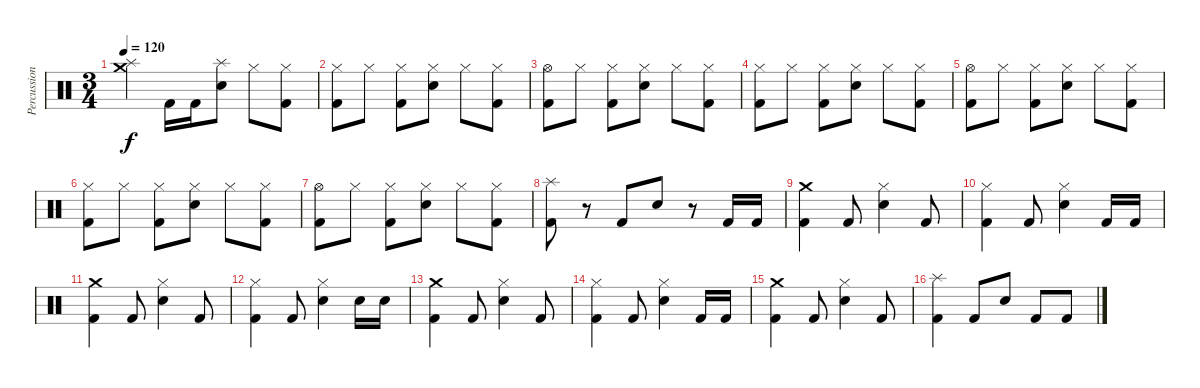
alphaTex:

\track ("Percussion" "Percussion") {instrument percussion}
\staff {score}
\articulation defaults
\ts (3 4)
\tempo 120
\clef neutral
\ks c
("Crash medium (hit)" "Splash (hit)").4{dy f} "Kick (hit) 2".16 "Kick (hit) 2".16 ("Splash (hit)" "Electric Snare (hit)").8 "Hi-Hat (closed)".8 ("Hi-Hat (closed)" "Kick (hit) 2").8 |
("Hi-Hat (closed)" "Kick (hit) 2").8 "Hi-Hat (closed)".8 ("Hi-Hat (closed)" "Kick (hit) 2").8 ("Hi-Hat (closed)" "Electric Snare (hit)").8 "Hi-Hat (closed)".8 ("Hi-Hat (closed)" "Kick (hit) 2").8 |
("Hi-Hat (open)" "Kick (hit) 2").8 "Hi-Hat (closed)".8 ("Hi-Hat (closed)" "Kick (hit) 2").8 ("Hi-Hat (closed)" "Electric Snare (hit)").8 "Hi-Hat (closed)".8 ("Hi-Hat (closed)" "Kick (hit) 2").8 |
("Hi-Hat (closed)" "Kick (hit) 2").8 "Hi-Hat (closed)".8 ("Hi-Hat (closed)" "Kick (hit) 2").8 ("Hi-Hat (closed)" "Electric Snare (hit)").8 "Hi-Hat (closed)".8 ("Hi-Hat (closed)" "Kick (hit) 2").8 |
("Hi-Hat (open)" "Kick (hit) 2").8 "Hi-Hat (closed)".8 ("Hi-Hat (closed)" "Kick (hit) 2").8 ("Hi-Hat (closed)" "Electric Snare (hit)").8 "Hi-Hat (closed)".8 ("Hi-Hat (closed)" "Kick (hit) 2").8 |
("Hi-Hat (closed)" "Kick (hit) 2").8 "Hi-Hat (closed)".8 ("Hi-Hat (closed)" "Kick (hit) 2").8 ("Hi-Hat (closed)" "Electric Snare (hit)").8 "Hi-Hat (closed)".8 ("Hi-Hat (closed)" "Kick (hit) 2").8 |
("Hi-Hat (open)" "Kick (hit) 2").8 "Hi-Hat (closed)".8 ("Hi-Hat (closed)" "Kick (hit) 2").8 ("Hi-Hat (closed)" "Electric Snare (hit)").8 "Hi-Hat (closed)".8 ("Hi-Hat (closed)" "Kick (hit) 2").8 |
("Splash (hit)" "Kick (hit) 2").8 r.8 "Kick (hit) 2".8 "Electric Snare (hit)".8 r.8 "Kick (hit) 2".16 "Kick (hit) 2".16 |
("Crash medium (hit)" "Kick (hit) 2").4 "Kick (hit) 2".8 ("Hi-Hat (closed)" "Electric Snare (hit)").4 "Kick (hit) 2".8 |
("Hi-Hat (closed)" "Kick (hit) 2").4 "Kick (hit) 2".8 ("Hi-Hat (closed)" "Electric Snare (hit)").4 "Kick (hit) 2".16 "Kick (hit) 2".16 |
("Crash medium (hit)" "Kick (hit) 2").4 "Kick (hit) 2".8 ("Hi-Hat (closed)" "Electric Snare (hit)").4 "Kick (hit) 2".8 |
("Hi-Hat (closed)" "Kick (hit) 2").4 "Kick (hit) 2".8 ("Hi-Hat (closed)" "Electric Snare (hit)").4 "Electric Snare (hit)".16 "Electric Snare (hit)".16 |
("Crash medium (hit)" "Kick (hit) 2").4 "Kick (hit) 2".8 ("Hi-Hat (closed)" "Electric Snare (hit)").4 "Kick (hit) 2".8 |
("Hi-Hat (closed)" "Kick (hit) 2").4 "Kick (hit) 2".8 ("Hi-Hat (closed)" "Electric Snare (hit)").4 "Kick (hit) 2".16 "Kick (hit) 2".16 |
("Crash medium (hit)" "Kick (hit) 2").4 "Kick (hit) 2".8 ("Hi-Hat (closed)" "Electric Snare (hit)").4 "Kick (hit) 2".8 |
("Splash (hit)" "Kick (hit) 2").4 "Kick (hit) 2".8 "Electric Snare (hit)".8 "Kick (hit) 2".8 "Kick (hit) 2".8
